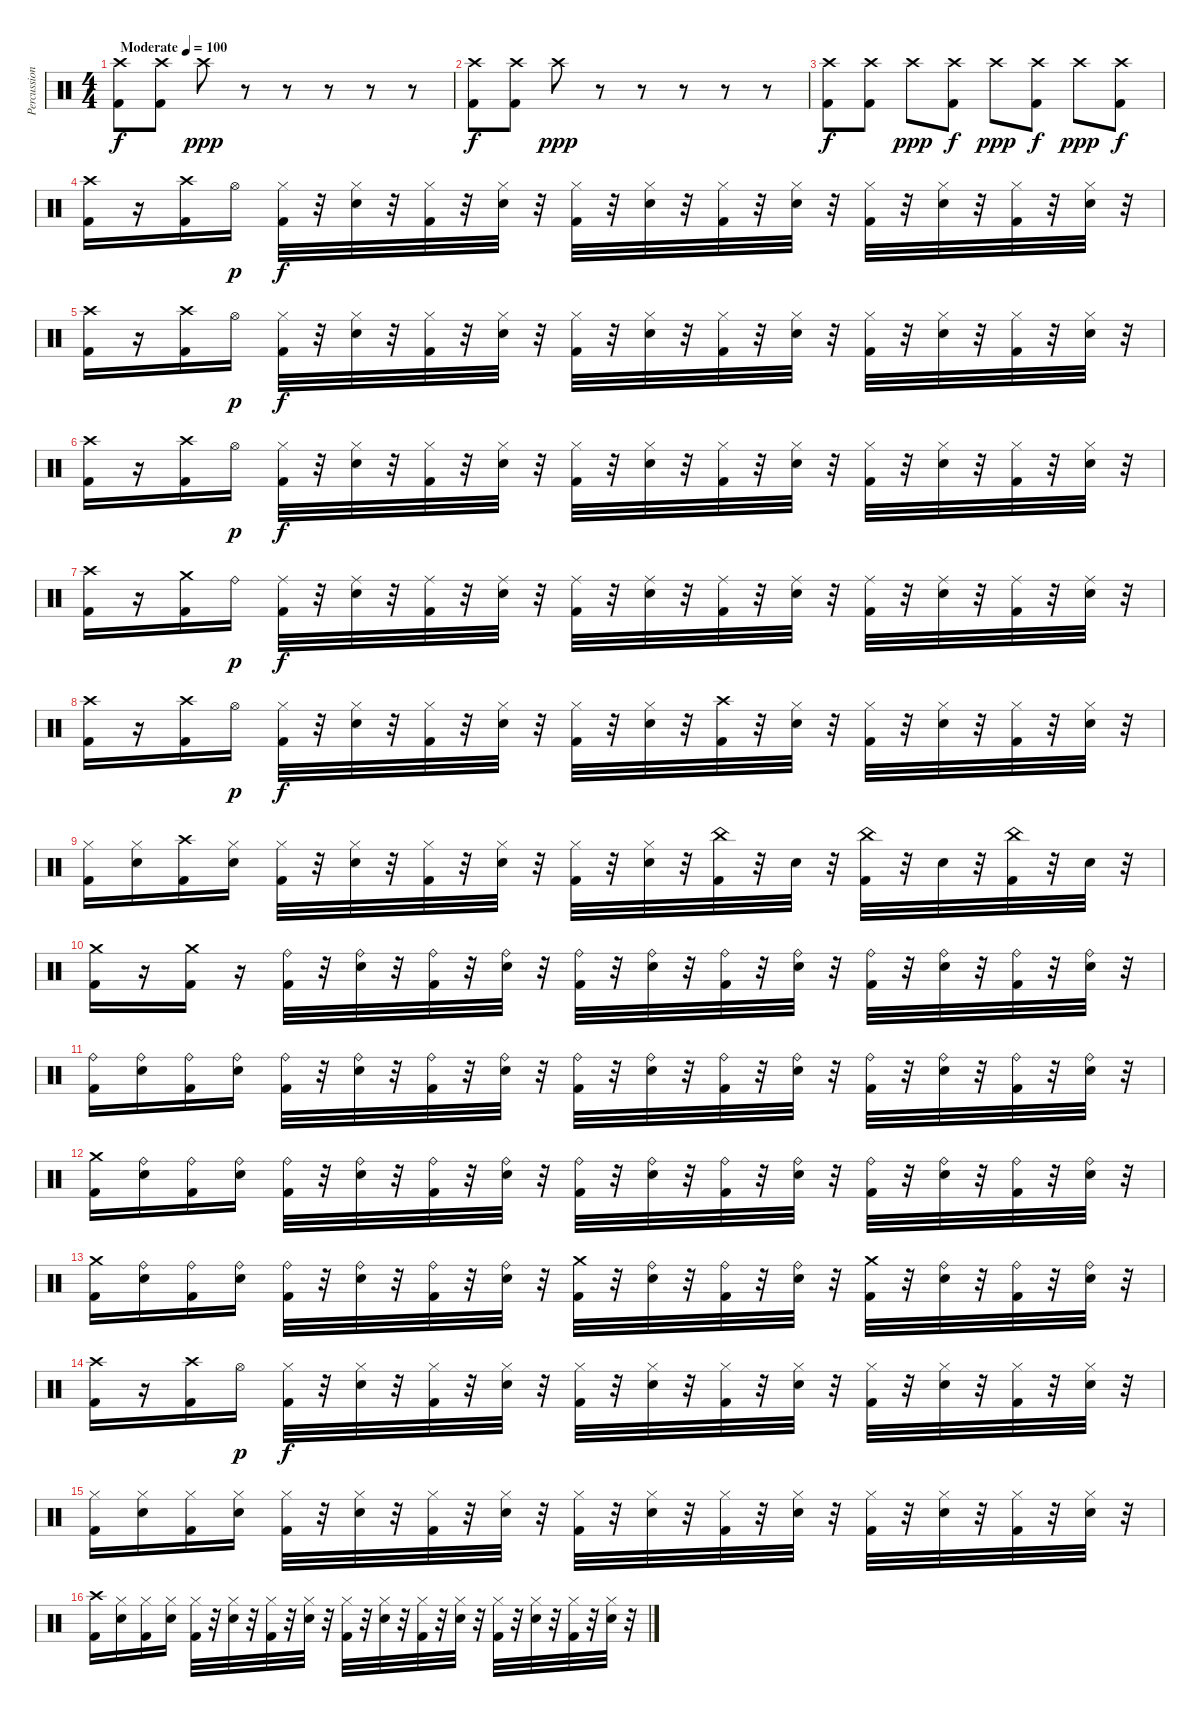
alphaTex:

\track ("Percussion" "Percussion") {instrument percussion}
\staff {score}
\articulation defaults
\ts (4 4)
\tempo (100 "Moderate")
\clef neutral
\ks c
("Crash high (hit)" "Kick (hit) 2").8{dy f} ("Crash high (hit)" "Kick (hit) 2").8 "Crash high (hit)".8{dy ppp} r.8 r.8 r.8 r.8 r.8 |
("Crash high (hit)" "Kick (hit) 2").8{dy f} ("Crash high (hit)" "Kick (hit) 2").8 "Crash high (hit)".8{dy ppp} r.8 r.8 r.8 r.8 r.8 |
("Crash high (hit)" "Kick (hit) 2").8{dy f} ("Crash high (hit)" "Kick (hit) 2").8 "Crash high (hit)".8{dy ppp} ("Crash high (hit)" "Kick (hit) 2").8{dy f} "Crash high (hit)".8{dy ppp} ("Crash high (hit)" "Kick (hit) 2").8{dy f} "Crash high (hit)".8{dy ppp} ("Crash high (hit)" "Kick (hit) 2").8{dy f} |
("Kick (hit) 2" "Crash high (hit)").16 r.16 ("Kick (hit) 2" "Crash high (hit)").16 "Hi-Hat (open)".16{dy p} ("Kick (hit) 2" "Hi-Hat (closed)").32{dy f} r.32 ("Snare (hit) 2" "Hi-Hat (closed)").32 r.32 ("Kick (hit) 2" "Hi-Hat (closed)").32 r.32 ("Hi-Hat (closed)" "Snare (hit) 2").32 r.32 ("Kick (hit) 2" "Hi-Hat (closed)").32 r.32 ("Hi-Hat (closed)" "Snare (hit) 2").32 r.32 ("Kick (hit) 2" "Hi-Hat (closed)").32 r.32 ("Hi-Hat (closed)" "Snare (hit) 2").32 r.32 ("Kick (hit) 2" "Hi-Hat (closed)").32 r.32 ("Hi-Hat (closed)" "Snare (hit) 2").32 r.32 ("Kick (hit) 2" "Hi-Hat (closed)").32 r.32 ("Hi-Hat (closed)" "Snare (hit) 2").32 r.32 |
("Kick (hit) 2" "Crash high (hit)").16 r.16 ("Kick (hit) 2" "Crash high (hit)").16 "Hi-Hat (open)".16{dy p} ("Kick (hit) 2" "Hi-Hat (closed)").32{dy f} r.32 ("Snare (hit) 2" "Hi-Hat (closed)").32 r.32 ("Kick (hit) 2" "Hi-Hat (closed)").32 r.32 ("Hi-Hat (closed)" "Snare (hit) 2").32 r.32 ("Kick (hit) 2" "Hi-Hat (closed)").32 r.32 ("Hi-Hat (closed)" "Snare (hit) 2").32 r.32 ("Kick (hit) 2" "Hi-Hat (closed)").32 r.32 ("Hi-Hat (closed)" "Snare (hit) 2").32 r.32 ("Kick (hit) 2" "Hi-Hat (closed)").32 r.32 ("Hi-Hat (closed)" "Snare (hit) 2").32 r.32 ("Kick (hit) 2" "Hi-Hat (closed)").32 r.32 ("Hi-Hat (closed)" "Snare (hit) 2").32 r.32 |
("Kick (hit) 2" "Crash high (hit)").16 r.16 ("Kick (hit) 2" "Crash high (hit)").16 "Hi-Hat (open)".16{dy p} ("Kick (hit) 2" "Hi-Hat (closed)").32{dy f} r.32 ("Snare (hit) 2" "Hi-Hat (closed)").32 r.32 ("Kick (hit) 2" "Hi-Hat (closed)").32 r.32 ("Hi-Hat (closed)" "Snare (hit) 2").32 r.32 ("Kick (hit) 2" "Hi-Hat (closed)").32 r.32 ("Hi-Hat (closed)" "Snare (hit) 2").32 r.32 ("Kick (hit) 2" "Hi-Hat (closed)").32 r.32 ("Hi-Hat (closed)" "Snare (hit) 2").32 r.32 ("Kick (hit) 2" "Hi-Hat (closed)").32 r.32 ("Hi-Hat (closed)" "Snare (hit) 2").32 r.32 ("Kick (hit) 2" "Hi-Hat (closed)").32 r.32 ("Hi-Hat (closed)" "Snare (hit) 2").32 r.32 |
("Kick (hit) 2" "Crash high (hit)").16 r.16 ("Kick (hit) 2" "Crash medium (hit)").16 "Ride (bell)".16{dy p} ("Kick (hit) 2" "Ride (middle)").32{dy f} r.32 ("Snare (hit) 2" "Ride (middle)").32 r.32 ("Kick (hit) 2" "Ride (middle)").32 r.32 ("Ride (middle)" "Snare (hit) 2").32 r.32 ("Kick (hit) 2" "Ride (middle)").32 r.32 ("Ride (middle)" "Snare (hit) 2").32 r.32 ("Kick (hit) 2" "Ride (middle)").32 r.32 ("Ride (middle)" "Snare (hit) 2").32 r.32 ("Kick (hit) 2" "Ride (middle)").32 r.32 ("Ride (middle)" "Snare (hit) 2").32 r.32 ("Kick (hit) 2" "Ride (middle)").32 r.32 ("Ride (middle)" "Snare (hit) 2").32 r.32 |
("Kick (hit) 2" "Crash high (hit)").16 r.16 ("Kick (hit) 2" "Crash high (hit)").16 "Hi-Hat (open)".16{dy p} ("Kick (hit) 2" "Hi-Hat (closed)").32{dy f} r.32 ("Snare (hit) 2" "Hi-Hat (closed)").32 r.32 ("Kick (hit) 2" "Hi-Hat (closed)").32 r.32 ("Hi-Hat (closed)" "Snare (hit) 2").32 r.32 ("Kick (hit) 2" "Hi-Hat (closed)").32 r.32 ("Hi-Hat (closed)" "Snare (hit) 2").32 r.32 ("Kick (hit) 2" "Crash high (hit)").32 r.32 ("Hi-Hat (closed)" "Snare (hit) 2").32 r.32 ("Kick (hit) 2" "Hi-Hat (closed)").32 r.32 ("Hi-Hat (closed)" "Snare (hit) 2").32 r.32 ("Kick (hit) 2" "Hi-Hat (closed)").32 r.32 ("Hi-Hat (closed)" "Snare (hit) 2").32 r.32 |
("Kick (hit) 2" "Hi-Hat (closed)").16 ("Hi-Hat (closed)" "Snare (hit) 2").16 ("Kick (hit) 2" "Crash high (hit)").16 ("Hi-Hat (closed)" "Snare (hit) 2").16 ("Kick (hit) 2" "Hi-Hat (closed)").32 r.32 ("Snare (hit) 2" "Hi-Hat (closed)").32 r.32 ("Kick (hit) 2" "Hi-Hat (closed)").32 r.32 ("Hi-Hat (closed)" "Snare (hit) 2").32 r.32 ("Kick (hit) 2" "Hi-Hat (closed)").32 r.32 ("Hi-Hat (closed)" "Snare (hit) 2").32 r.32 ("Kick (hit) 2" "China (hit)").32 r.32 "Snare (hit) 2".32 r.32 ("Kick (hit) 2" "China (hit)").32 r.32 "Snare (hit) 2".32 r.32 ("Kick (hit) 2" "China (hit)").32 r.32 "Snare (hit) 2".32 r.32 |
("Kick (hit) 2" "Crash medium (hit)").16 r.16 ("Kick (hit) 2" "Crash medium (hit)").16 r.16 ("Kick (hit) 2" "Ride (bell)").32 r.32 ("Snare (hit) 2" "Ride (bell)").32 r.32 ("Kick (hit) 2" "Ride (bell)").32 r.32 ("Ride (bell)" "Snare (hit) 2").32 r.32 ("Kick (hit) 2" "Ride (bell)").32 r.32 ("Ride (bell)" "Snare (hit) 2").32 r.32 ("Kick (hit) 2" "Ride (bell)").32 r.32 ("Ride (bell)" "Snare (hit) 2").32 r.32 ("Kick (hit) 2" "Ride (bell)").32 r.32 ("Ride (bell)" "Snare (hit) 2").32 r.32 ("Kick (hit) 2" "Ride (bell)").32 r.32 ("Ride (bell)" "Snare (hit) 2").32 r.32 |
("Kick (hit) 2" "Ride (bell)").16 ("Ride (bell)" "Snare (hit) 2").16 ("Kick (hit) 2" "Ride (bell)").16 ("Ride (bell)" "Snare (hit) 2").16 ("Kick (hit) 2" "Ride (bell)").32 r.32 ("Snare (hit) 2" "Ride (bell)").32 r.32 ("Kick (hit) 2" "Ride (bell)").32 r.32 ("Ride (bell)" "Snare (hit) 2").32 r.32 ("Kick (hit) 2" "Ride (bell)").32 r.32 ("Ride (bell)" "Snare (hit) 2").32 r.32 ("Kick (hit) 2" "Ride (bell)").32 r.32 ("Ride (bell)" "Snare (hit) 2").32 r.32 ("Kick (hit) 2" "Ride (bell)").32 r.32 ("Ride (bell)" "Snare (hit) 2").32 r.32 ("Kick (hit) 2" "Ride (bell)").32 r.32 ("Ride (bell)" "Snare (hit) 2").32 r.32 |
("Kick (hit) 2" "Crash medium (hit)").16 ("Ride (bell)" "Snare (hit) 2").16 ("Kick (hit) 2" "Ride (bell)").16 ("Ride (bell)" "Snare (hit) 2").16 ("Kick (hit) 2" "Ride (bell)").32 r.32 ("Snare (hit) 2" "Ride (bell)").32 r.32 ("Kick (hit) 2" "Ride (bell)").32 r.32 ("Ride (bell)" "Snare (hit) 2").32 r.32 ("Kick (hit) 2" "Ride (bell)").32 r.32 ("Ride (bell)" "Snare (hit) 2").32 r.32 ("Kick (hit) 2" "Ride (bell)").32 r.32 ("Ride (bell)" "Snare (hit) 2").32 r.32 ("Kick (hit) 2" "Ride (bell)").32 r.32 ("Ride (bell)" "Snare (hit) 2").32 r.32 ("Kick (hit) 2" "Ride (bell)").32 r.32 ("Ride (bell)" "Snare (hit) 2").32 r.32 |
("Kick (hit) 2" "Crash medium (hit)").16 ("Ride (bell)" "Snare (hit) 2").16 ("Kick (hit) 2" "Ride (bell)").16 ("Ride (bell)" "Snare (hit) 2").16 ("Kick (hit) 2" "Ride (bell)").32 r.32 ("Snare (hit) 2" "Ride (bell)").32 r.32 ("Kick (hit) 2" "Ride (bell)").32 r.32 ("Ride (bell)" "Snare (hit) 2").32 r.32 ("Kick (hit) 2" "Crash medium (hit)").32 r.32 ("Ride (bell)" "Snare (hit) 2").32 r.32 ("Kick (hit) 2" "Ride (bell)").32 r.32 ("Ride (bell)" "Snare (hit) 2").32 r.32 ("Kick (hit) 2" "Crash medium (hit)").32 r.32 ("Ride (bell)" "Snare (hit) 2").32 r.32 ("Kick (hit) 2" "Ride (bell)").32 r.32 ("Ride (bell)" "Snare (hit) 2").32 r.32 |
("Kick (hit) 2" "Crash high (hit)").16 r.16 ("Kick (hit) 2" "Crash high (hit)").16 "Hi-Hat (open)".16{dy p} ("Kick (hit) 2" "Hi-Hat (closed)").32{dy f} r.32 ("Snare (hit) 2" "Hi-Hat (closed)").32 r.32 ("Kick (hit) 2" "Hi-Hat (closed)").32 r.32 ("Hi-Hat (closed)" "Snare (hit) 2").32 r.32 ("Kick (hit) 2" "Hi-Hat (closed)").32 r.32 ("Hi-Hat (closed)" "Snare (hit) 2").32 r.32 ("Kick (hit) 2" "Hi-Hat (closed)").32 r.32 ("Hi-Hat (closed)" "Snare (hit) 2").32 r.32 ("Kick (hit) 2" "Hi-Hat (closed)").32 r.32 ("Hi-Hat (closed)" "Snare (hit) 2").32 r.32 ("Kick (hit) 2" "Hi-Hat (closed)").32 r.32 ("Hi-Hat (closed)" "Snare (hit) 2").32 r.32 |
("Kick (hit) 2" "Hi-Hat (closed)").16 ("Hi-Hat (closed)" "Snare (hit) 2").16 ("Kick (hit) 2" "Hi-Hat (closed)").16 ("Hi-Hat (closed)" "Snare (hit) 2").16 ("Kick (hit) 2" "Hi-Hat (closed)").32 r.32 ("Snare (hit) 2" "Hi-Hat (closed)").32 r.32 ("Kick (hit) 2" "Hi-Hat (closed)").32 r.32 ("Hi-Hat (closed)" "Snare (hit) 2").32 r.32 ("Kick (hit) 2" "Hi-Hat (closed)").32 r.32 ("Hi-Hat (closed)" "Snare (hit) 2").32 r.32 ("Kick (hit) 2" "Hi-Hat (closed)").32 r.32 ("Hi-Hat (closed)" "Snare (hit) 2").32 r.32 ("Kick (hit) 2" "Hi-Hat (closed)").32 r.32 ("Hi-Hat (closed)" "Snare (hit) 2").32 r.32 ("Kick (hit) 2" "Hi-Hat (closed)").32 r.32 ("Hi-Hat (closed)" "Snare (hit) 2").32 r.32 |
("Kick (hit) 2" "Crash high (hit)").16 ("Hi-Hat (closed)" "Snare (hit) 2").16 ("Kick (hit) 2" "Hi-Hat (closed)").16 ("Hi-Hat (closed)" "Snare (hit) 2").16 ("Kick (hit) 2" "Hi-Hat (closed)").32 r.32 ("Snare (hit) 2" "Hi-Hat (closed)").32 r.32 ("Kick (hit) 2" "Hi-Hat (closed)").32 r.32 ("Hi-Hat (closed)" "Snare (hit) 2").32 r.32 ("Kick (hit) 2" "Hi-Hat (closed)").32 r.32 ("Hi-Hat (closed)" "Snare (hit) 2").32 r.32 ("Kick (hit) 2" "Hi-Hat (closed)").32 r.32 ("Hi-Hat (closed)" "Snare (hit) 2").32 r.32 ("Kick (hit) 2" "Hi-Hat (closed)").32 r.32 ("Hi-Hat (closed)" "Snare (hit) 2").32 r.32 ("Kick (hit) 2" "Hi-Hat (closed)").32 r.32 ("Hi-Hat (closed)" "Snare (hit) 2").32 r.32
